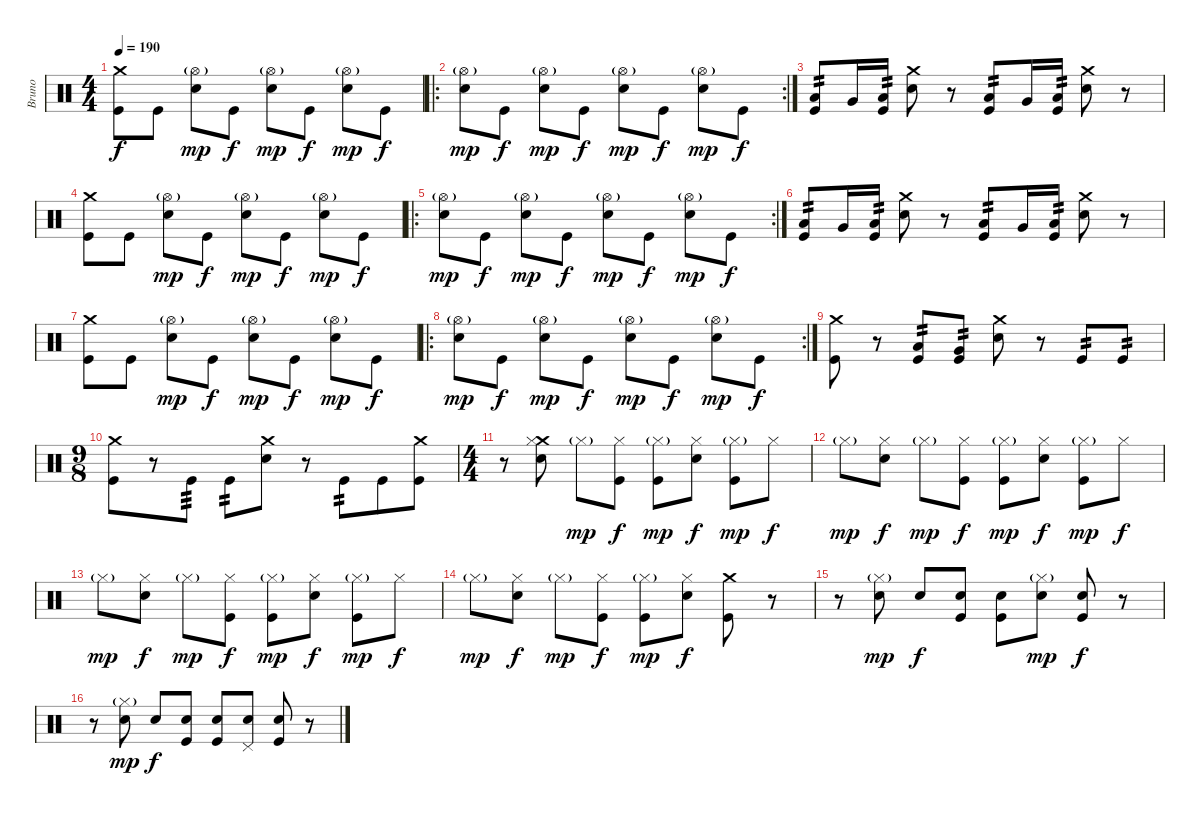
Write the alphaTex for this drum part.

\track ("Bruno" "Bruno") {instrument percussion}
\staff {score}
\articulation defaults
\ts (4 4)
\tempo 190
\clef neutral
\ks c
("Crash medium (hit)" "Kick (hit)").8{dy f} "Kick (hit)".8 ("Hi-Hat (open)"{g} "Electric Snare (hit)").8{dy mp} "Kick (hit)".8{dy f} ("Hi-Hat (open)"{g} "Electric Snare (hit)").8{dy mp} "Kick (hit)".8{dy f} ("Hi-Hat (open)"{g} "Electric Snare (hit)").8{dy mp} "Kick (hit)".8{dy f} |
\ro
\rc 2
("Hi-Hat (open)"{g} "Electric Snare (hit)").8{dy mp} "Kick (hit)".8{dy f} ("Hi-Hat (open)"{g} "Electric Snare (hit)").8{dy mp} "Kick (hit)".8{dy f} ("Hi-Hat (open)"{g} "Electric Snare (hit)").8{dy mp} "Kick (hit)".8{dy f} ("Hi-Hat (open)"{g} "Electric Snare (hit)").8{dy mp} "Kick (hit)".8{dy f} |
("Low Tom (hit)" "Kick (hit)").8{tp 2} "Very Low Tom (hit)".16 ("Low Floor Tom (hit)" "Kick (hit)").16{tp 2} ("Electric Snare (hit)" "Crash medium (hit)").8 r.8 ("Low Tom (hit)" "Kick (hit)").8{tp 2} "Very Low Tom (hit)".16 ("Low Floor Tom (hit)" "Kick (hit)").16{tp 2} ("Electric Snare (hit)" "Crash medium (hit)").8 r.8 |
("Crash medium (hit)" "Kick (hit)").8 "Kick (hit)".8 ("Hi-Hat (open)"{g} "Electric Snare (hit)").8{dy mp} "Kick (hit)".8{dy f} ("Hi-Hat (open)"{g} "Electric Snare (hit)").8{dy mp} "Kick (hit)".8{dy f} ("Hi-Hat (open)"{g} "Electric Snare (hit)").8{dy mp} "Kick (hit)".8{dy f} |
\ro
\rc 2
("Hi-Hat (open)"{g} "Electric Snare (hit)").8{dy mp} "Kick (hit)".8{dy f} ("Hi-Hat (open)"{g} "Electric Snare (hit)").8{dy mp} "Kick (hit)".8{dy f} ("Hi-Hat (open)"{g} "Electric Snare (hit)").8{dy mp} "Kick (hit)".8{dy f} ("Hi-Hat (open)"{g} "Electric Snare (hit)").8{dy mp} "Kick (hit)".8{dy f} |
("Low Tom (hit)" "Kick (hit)").8{tp 2} "Very Low Tom (hit)".16 ("Low Floor Tom (hit)" "Kick (hit)").16{tp 2} ("Electric Snare (hit)" "Crash medium (hit)").8 r.8 ("Low Tom (hit)" "Kick (hit)").8{tp 2} "Very Low Tom (hit)".16 ("Low Floor Tom (hit)" "Kick (hit)").16{tp 2} ("Electric Snare (hit)" "Crash medium (hit)").8 r.8 |
("Crash medium (hit)" "Kick (hit)").8 "Kick (hit)".8 ("Hi-Hat (open)"{g} "Electric Snare (hit)").8{dy mp} "Kick (hit)".8{dy f} ("Hi-Hat (open)"{g} "Electric Snare (hit)").8{dy mp} "Kick (hit)".8{dy f} ("Hi-Hat (open)"{g} "Electric Snare (hit)").8{dy mp} "Kick (hit)".8{dy f} |
\ro
\rc 2
("Hi-Hat (open)"{g} "Electric Snare (hit)").8{dy mp} "Kick (hit)".8{dy f} ("Hi-Hat (open)"{g} "Electric Snare (hit)").8{dy mp} "Kick (hit)".8{dy f} ("Hi-Hat (open)"{g} "Electric Snare (hit)").8{dy mp} "Kick (hit)".8{dy f} ("Hi-Hat (open)"{g} "Electric Snare (hit)").8{dy mp} "Kick (hit)".8{dy f} |
("Crash medium (hit)" "Kick (hit)").8 r.8 ("Low Tom (hit)" "Kick (hit)").8{tp 2} ("Very Low Tom (hit)" "Kick (hit)").8{tp 2} ("Crash medium (hit)" "Electric Snare (hit)").8 r.8 "Kick (hit)".8{tp 2} "Kick (hit)".8{tp 2} |
\ts (9 8)
("Crash medium (hit)" "Kick (hit)").8 r.8 "Kick (hit)".8{tp 3} "Kick (hit)".8{tp 2} ("Crash medium (hit)" "Electric Snare (hit)").8 r.8 "Kick (hit)".8{tp 2} "Kick (hit)".8 ("Crash medium (hit)" "Kick (hit)").8 |
\ts (4 4)
r.8 ("Crash medium (hit)" "Hi-Hat (closed)" "Electric Snare (hit)").8 "Hi-Hat (closed)"{g}.8{dy mp} ("Hi-Hat (closed)" "Kick (hit)").8{dy f} ("Hi-Hat (closed)"{g} "Kick (hit)").8{dy mp} ("Hi-Hat (closed)" "Electric Snare (hit)").8{dy f} ("Hi-Hat (closed)"{g} "Kick (hit)").8{dy mp} "Hi-Hat (closed)".8{dy f} |
"Hi-Hat (closed)"{g}.8{dy mp} ("Hi-Hat (closed)" "Electric Snare (hit)").8{dy f} "Hi-Hat (closed)"{g}.8{dy mp} ("Hi-Hat (closed)" "Kick (hit)").8{dy f} ("Hi-Hat (closed)"{g} "Kick (hit)").8{dy mp} ("Hi-Hat (closed)" "Electric Snare (hit)").8{dy f} ("Hi-Hat (closed)"{g} "Kick (hit)").8{dy mp} "Hi-Hat (closed)".8{dy f} |
"Hi-Hat (closed)"{g}.8{dy mp} ("Hi-Hat (closed)" "Electric Snare (hit)").8{dy f} "Hi-Hat (closed)"{g}.8{dy mp} ("Hi-Hat (closed)" "Kick (hit)").8{dy f} ("Hi-Hat (closed)"{g} "Kick (hit)").8{dy mp} ("Hi-Hat (closed)" "Electric Snare (hit)").8{dy f} ("Hi-Hat (closed)"{g} "Kick (hit)").8{dy mp} "Hi-Hat (closed)".8{dy f} |
"Hi-Hat (closed)"{g}.8{dy mp} ("Hi-Hat (closed)" "Electric Snare (hit)").8{dy f} "Hi-Hat (closed)"{g}.8{dy mp} ("Hi-Hat (closed)" "Kick (hit)").8{dy f} ("Hi-Hat (closed)"{g} "Kick (hit)").8{dy mp} ("Hi-Hat (closed)" "Electric Snare (hit)").8{dy f} ("Crash medium (hit)" "Kick (hit)").8 r.8 |
r.8 ("Hi-Hat (closed)"{g} "Snare (hit) 2").8{dy mp} "Snare (hit) 2".8{dy f} ("Snare (hit) 2" "Kick (hit)").8 ("Snare (hit) 2" "Kick (hit)").8 ("Hi-Hat (closed)"{g} "Snare (hit) 2").8{dy mp} ("Snare (hit) 2" "Kick (hit)").8{dy f} r.8 |
r.8 ("Hi-Hat (closed)"{g} "Snare (hit) 2").8{dy mp} "Snare (hit) 2".8{dy f} ("Snare (hit) 2" "Kick (hit)").8 ("Snare (hit) 2" "Kick (hit)").8 ("Pedal Hi-Hat (hit)" "Snare (hit) 2").8 ("Snare (hit) 2" "Kick (hit)").8 r.8
